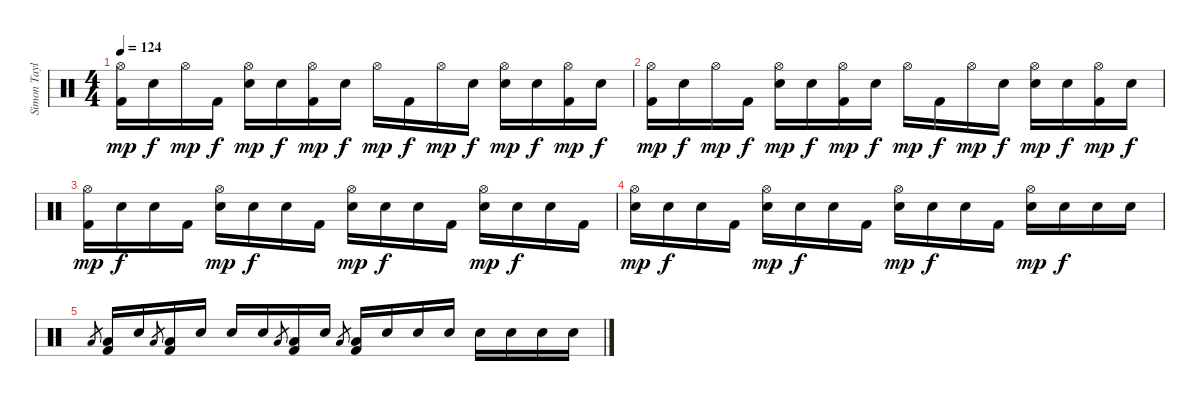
\track ("Simon Taylor - Drums" "Simon Tayl") {instrument percussion}
\staff {score}
\articulation defaults
\ts (4 4)
\tempo 124
\clef neutral
\ks c
("Hi-Hat (open)" "Kick (hit) 2").16{dy mp} "Snare (hit)".16{dy f} "Hi-Hat (open)".16{dy mp} "Kick (hit) 2".16{dy f} ("Hi-Hat (open)" "Electric Snare (hit)").16{dy mp} "Snare (hit)".16{dy f} ("Hi-Hat (open)" "Kick (hit) 2").16{dy mp} "Snare (hit)".16{dy f} "Hi-Hat (open)".16{dy mp} "Kick (hit) 2".16{dy f} "Hi-Hat (open)".16{dy mp} "Snare (hit)".16{dy f} ("Hi-Hat (open)" "Electric Snare (hit)").16{dy mp} "Snare (hit)".16{dy f} ("Hi-Hat (open)" "Kick (hit) 2").16{dy mp} "Snare (hit)".16{dy f} |
("Hi-Hat (open)" "Kick (hit) 2").16{dy mp} "Snare (hit)".16{dy f} "Hi-Hat (open)".16{dy mp} "Kick (hit) 2".16{dy f} ("Hi-Hat (open)" "Electric Snare (hit)").16{dy mp} "Snare (hit)".16{dy f} ("Hi-Hat (open)" "Kick (hit) 2").16{dy mp} "Snare (hit)".16{dy f} "Hi-Hat (open)".16{dy mp} "Kick (hit) 2".16{dy f} "Hi-Hat (open)".16{dy mp} "Snare (hit)".16{dy f} ("Hi-Hat (open)" "Electric Snare (hit)").16{dy mp} "Snare (hit)".16{dy f} ("Hi-Hat (open)" "Kick (hit) 2").16{dy mp} "Snare (hit)".16{dy f} |
("Hi-Hat (open)" "Kick (hit) 2").16{dy mp} "Snare (hit)".16{dy f} "Snare (hit)".16 "Kick (hit) 2".16 ("Hi-Hat (open)" "Electric Snare (hit)").16{dy mp} "Snare (hit)".16{dy f} "Snare (hit)".16 "Kick (hit) 2".16 ("Hi-Hat (open)" "Electric Snare (hit)").16{dy mp} "Snare (hit)".16{dy f} "Snare (hit)".16 "Kick (hit) 2".16 ("Hi-Hat (open)" "Electric Snare (hit)").16{dy mp} "Snare (hit)".16{dy f} "Snare (hit)".16 "Kick (hit) 2".16 |
("Hi-Hat (open)" "Electric Snare (hit)").16{dy mp} "Snare (hit)".16{dy f} "Snare (hit)".16 "Kick (hit) 2".16 ("Hi-Hat (open)" "Electric Snare (hit)").16{dy mp} "Snare (hit)".16{dy f} "Snare (hit)".16 "Kick (hit) 2".16 ("Hi-Hat (open)" "Electric Snare (hit)").16{dy mp} "Snare (hit)".16{dy f} "Snare (hit)".16 "Kick (hit) 2".16 ("Hi-Hat (open)" "Electric Snare (hit)").16{dy mp} "Snare (hit)".16{dy f} "Snare (hit)".16 "Snare (hit)".16 |
"Low Floor Tom (hit)".8{gr} ("Low Floor Tom (hit)" "Kick (hit) 2").16 "Snare (hit)".16 "Low Floor Tom (hit)".8{gr} ("Low Floor Tom (hit)" "Kick (hit) 2").16 "Snare (hit)".16 "Snare (hit)".16 "Snare (hit)".16 "Low Floor Tom (hit)".8{gr} ("Low Floor Tom (hit)" "Kick (hit) 2").16 "Snare (hit)".16 "Low Floor Tom (hit)".8{gr} ("Low Floor Tom (hit)" "Kick (hit) 2").16 "Snare (hit)".16 "Snare (hit)".16 "Snare (hit)".16 "Snare (hit)".16 "Snare (hit)".16 "Snare (hit)".16 "Snare (hit)".16
